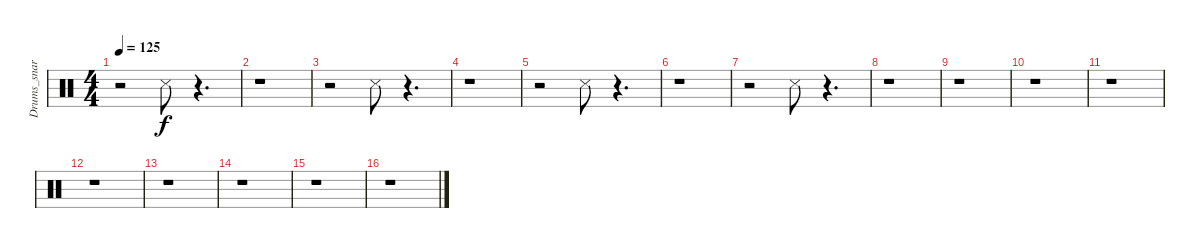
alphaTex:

\track ("Drums_snare&tom" "Drums_snar") {instrument percussion}
\staff {score}
\articulation defaults
\ts (4 4)
\tempo 125
\clef neutral
\ks c
r.2{dy f} "Snare (side stick) 3".8 r.4{d} |
r.1 |
r.2 "Snare (side stick) 3".8 r.4{d} |
r.1 |
r.2 "Snare (side stick) 3".8 r.4{d} |
r.1 |
r.2 "Snare (side stick) 3".8 r.4{d} |
r.1 |
r.1 |
r.1 |
r.1 |
r.1 |
r.1 |
r.1 |
r.1 |
r.1
